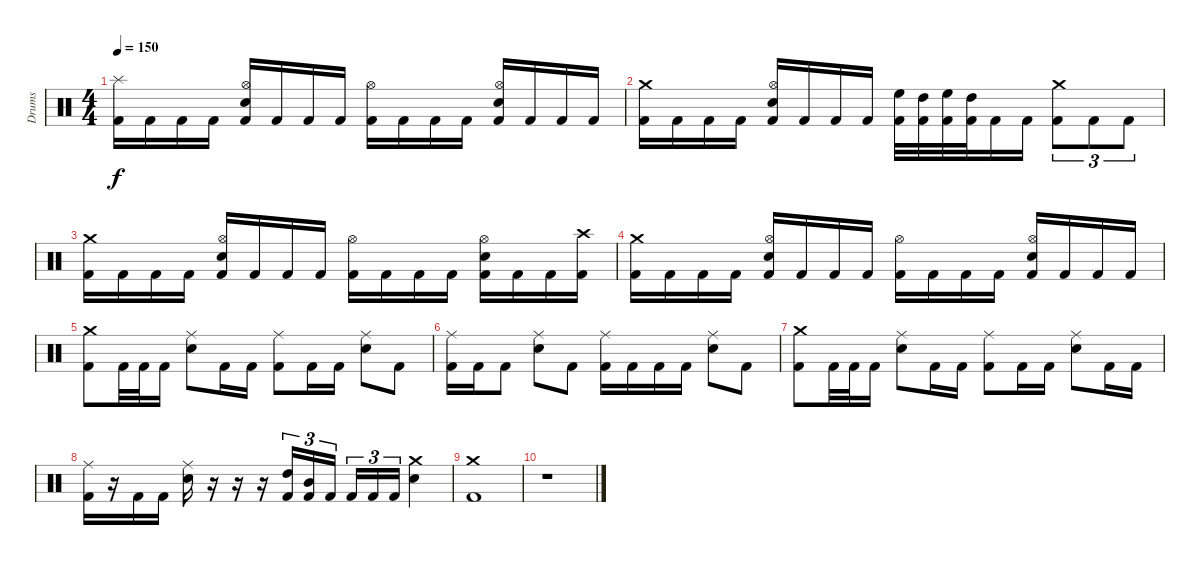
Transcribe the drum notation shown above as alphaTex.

\track ("Drums" "Drums") {instrument percussion}
\staff {score}
\articulation defaults
\ts (4 4)
\tempo 150
\clef neutral
\ks c
("Splash (hit)" "Kick (hit) 2").16{dy f} "Kick (hit) 2".16 "Kick (hit) 2".16 "Kick (hit) 2".16 ("Hi-Hat (open)" "Snare (hit) 2" "Kick (hit) 2").16 "Kick (hit) 2".16 "Kick (hit) 2".16 "Kick (hit) 2".16 ("Hi-Hat (open)" "Kick (hit) 2").16 "Kick (hit) 2".16 "Kick (hit) 2".16 "Kick (hit) 2".16 ("Hi-Hat (open)" "Snare (hit) 2" "Kick (hit) 2").16 "Kick (hit) 2".16 "Kick (hit) 2".16 "Kick (hit) 2".16 |
("Crash medium (hit)" "Kick (hit) 2").16 "Kick (hit) 2".16 "Kick (hit) 2".16 "Kick (hit) 2".16 ("Hi-Hat (open)" "Snare (hit) 2" "Kick (hit) 2").16 "Kick (hit) 2".16 "Kick (hit) 2".16 "Kick (hit) 2".16 ("High Floor Tom (hit)" "Kick (hit) 2").32 ("High Tom (hit)" "Kick (hit) 2").32 ("High Floor Tom (hit)" "Kick (hit) 2").32 ("High Tom (hit)" "Kick (hit) 2").32 "Kick (hit) 2".16 "Kick (hit) 2".16 ("Crash medium (hit)" "Kick (hit) 2").8{tu (3 2)} "Kick (hit) 2".8{tu (3 2)} "Kick (hit) 2".8{tu (3 2)} |
("Crash medium (hit)" "Kick (hit) 2").16 "Kick (hit) 2".16 "Kick (hit) 2".16 "Kick (hit) 2".16 ("Hi-Hat (open)" "Snare (hit) 2" "Kick (hit) 2").16 "Kick (hit) 2".16 "Kick (hit) 2".16 "Kick (hit) 2".16 ("Hi-Hat (open)" "Kick (hit) 2").16 "Kick (hit) 2".16 "Kick (hit) 2".16 "Kick (hit) 2".16 ("Hi-Hat (open)" "Snare (hit) 2" "Kick (hit) 2").16 "Kick (hit) 2".16 "Kick (hit) 2".16 ("Crash high (hit)" "Kick (hit) 2").16 |
("Crash medium (hit)" "Kick (hit) 2").16 "Kick (hit) 2".16 "Kick (hit) 2".16 "Kick (hit) 2".16 ("Hi-Hat (open)" "Snare (hit) 2" "Kick (hit) 2").16 "Kick (hit) 2".16 "Kick (hit) 2".16 "Kick (hit) 2".16 ("Hi-Hat (open)" "Kick (hit) 2").16 "Kick (hit) 2".16 "Kick (hit) 2".16 "Kick (hit) 2".16 ("Hi-Hat (open)" "Snare (hit) 2" "Kick (hit) 2").16 "Kick (hit) 2".16 "Kick (hit) 2".16 "Kick (hit) 2".16 |
("Crash medium (hit)" "Kick (hit) 2").8 "Kick (hit) 2".32 "Kick (hit) 2".32 "Kick (hit) 2".16 ("Ride (middle)" "Snare (hit) 2").8 "Kick (hit) 2".16 "Kick (hit) 2".16 ("Ride (middle)" "Kick (hit) 2").8 "Kick (hit) 2".16 "Kick (hit) 2".16 ("Ride (middle)" "Snare (hit) 2").8 "Kick (hit) 2".8 |
("Ride (middle)" "Kick (hit) 2").16 "Kick (hit) 2".16 "Kick (hit) 2".8 ("Ride (middle)" "Snare (hit) 2").8 "Kick (hit) 2".8 ("Ride (middle)" "Kick (hit) 2").16 "Kick (hit) 2".16 "Kick (hit) 2".16 "Kick (hit) 2".16 ("Ride (middle)" "Snare (hit) 2").8 "Kick (hit) 2".8 |
("Crash medium (hit)" "Kick (hit) 2").8 "Kick (hit) 2".32 "Kick (hit) 2".32 "Kick (hit) 2".16 ("Ride (middle)" "Snare (hit) 2").8 "Kick (hit) 2".16 "Kick (hit) 2".16 ("Ride (middle)" "Kick (hit) 2").8 "Kick (hit) 2".16 "Kick (hit) 2".16 ("Ride (middle)" "Snare (hit) 2").8 "Kick (hit) 2".16 "Kick (hit) 2".16 |
("Ride (middle)" "Kick (hit) 2").16 r.16 "Kick (hit) 2".16 "Kick (hit) 2".16 ("Ride (middle)" "Snare (hit) 2").16 r.16 r.16 r.16 ("High Tom (hit)" "Kick (hit) 2").16{tu (3 2)} ("Mid Tom (hit)" "Kick (hit) 2").16{tu (3 2)} "Kick (hit) 2".16{tu (3 2) beam splitsecondary} "Kick (hit) 2".16{tu (3 2)} "Kick (hit) 2".16{tu (3 2)} "Kick (hit) 2".16{tu (3 2)} ("Crash medium (hit)" "Snare (hit) 2").4 |
("Crash medium (hit)" "Kick (hit) 2").1 |
r.1
